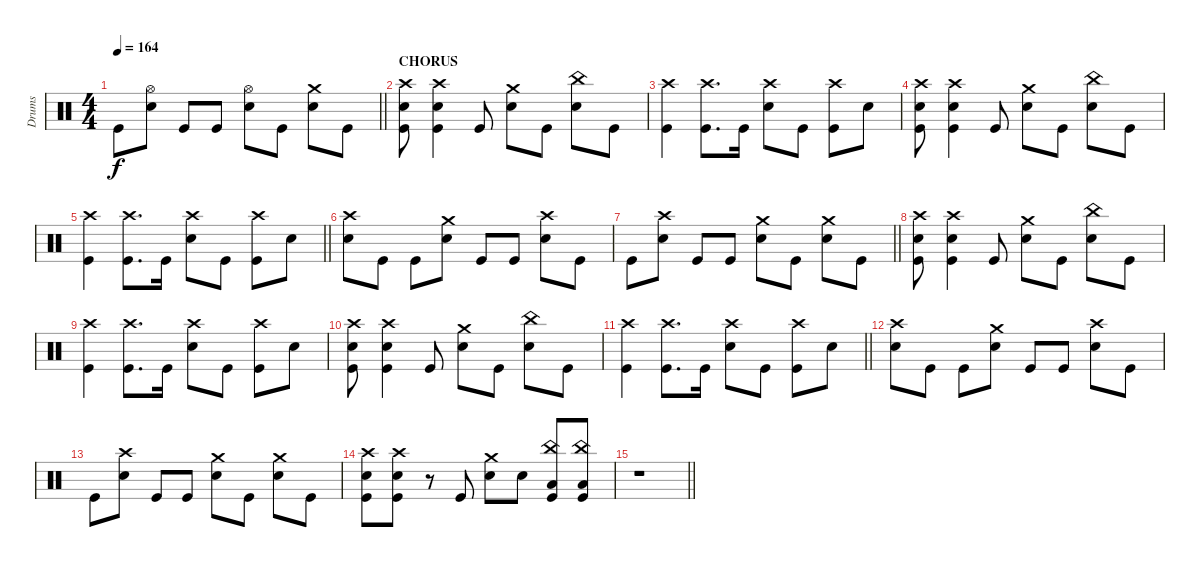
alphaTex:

\track ("Drums" "Drums") {instrument percussion}
\staff
\articulation defaults
\ts (4 4)
\tempo 164
\clef neutral
\barLineRight lightlight
\ks c "Kick (hit)".8{dy f}
("Hi-Hat (open)" "Electric Snare (hit)").8 "Kick (hit)".8 "Kick (hit)".8 ("Hi-Hat (open)" "Electric Snare (hit)").8 "Kick (hit)".8 ("Crash medium (hit)" "Electric Snare (hit)").8 "Kick (hit)".8 |
\section ("" "CHORUS")
("Crash high (hit)" "Electric Snare (hit)" "Kick (hit)").8 ("Crash high (hit)" "Electric Snare (hit)" "Kick (hit)").4 "Kick (hit)".8 ("Crash medium (hit)" "Electric Snare (hit)").8 "Kick (hit)".8 ("China (hit)" "Electric Snare (hit)").8 "Kick (hit)".8 |
("Crash high (hit)" "Kick (hit)").4 ("Crash high (hit)" "Kick (hit)").8{d} "Kick (hit)".16 ("Crash high (hit)" "Electric Snare (hit)").8 "Kick (hit)".8 ("Crash high (hit)" "Kick (hit)").8 "Electric Snare (hit)".8 |
("Crash high (hit)" "Electric Snare (hit)" "Kick (hit)").8 ("Crash high (hit)" "Electric Snare (hit)" "Kick (hit)").4 "Kick (hit)".8 ("Crash medium (hit)" "Electric Snare (hit)").8 "Kick (hit)".8 ("China (hit)" "Electric Snare (hit)").8 "Kick (hit)".8 |
\barLineRight lightlight
("Crash high (hit)" "Kick (hit)").4 ("Crash high (hit)" "Kick (hit)").8{d} "Kick (hit)".16 ("Crash high (hit)" "Electric Snare (hit)").8 "Kick (hit)".8 ("Crash high (hit)" "Kick (hit)").8 "Electric Snare (hit)".8 |
("Crash high (hit)" "Electric Snare (hit)").8 "Kick (hit)".8 "Kick (hit)".8 ("Crash medium (hit)" "Electric Snare (hit)").8 "Kick (hit)".8 "Kick (hit)".8 ("Crash high (hit)" "Electric Snare (hit)").8 "Kick (hit)".8 |
\barLineRight lightlight "Kick (hit)".8
("Crash high (hit)" "Electric Snare (hit)").8 "Kick (hit)".8 "Kick (hit)".8 ("Crash medium (hit)" "Electric Snare (hit)").8 "Kick (hit)".8 ("Crash medium (hit)" "Electric Snare (hit)").8 "Kick (hit)".8 |
("Crash high (hit)" "Electric Snare (hit)" "Kick (hit)").8 ("Crash high (hit)" "Electric Snare (hit)" "Kick (hit)").4 "Kick (hit)".8 ("Crash medium (hit)" "Electric Snare (hit)").8 "Kick (hit)".8 ("China (hit)" "Electric Snare (hit)").8 "Kick (hit)".8 |
("Crash high (hit)" "Kick (hit)").4 ("Crash high (hit)" "Kick (hit)").8{d} "Kick (hit)".16 ("Crash high (hit)" "Electric Snare (hit)").8 "Kick (hit)".8 ("Crash high (hit)" "Kick (hit)").8 "Electric Snare (hit)".8 |
("Crash high (hit)" "Electric Snare (hit)" "Kick (hit)").8 ("Crash high (hit)" "Electric Snare (hit)" "Kick (hit)").4 "Kick (hit)".8 ("Crash medium (hit)" "Electric Snare (hit)").8 "Kick (hit)".8 ("China (hit)" "Electric Snare (hit)").8 "Kick (hit)".8 |
\barLineRight lightlight
("Crash high (hit)" "Kick (hit)").4 ("Crash high (hit)" "Kick (hit)").8{d} "Kick (hit)".16 ("Crash high (hit)" "Electric Snare (hit)").8 "Kick (hit)".8 ("Crash high (hit)" "Kick (hit)").8 "Electric Snare (hit)".8 |
("Crash high (hit)" "Electric Snare (hit)").8 "Kick (hit)".8 "Kick (hit)".8 ("Crash medium (hit)" "Electric Snare (hit)").8 "Kick (hit)".8 "Kick (hit)".8 ("Crash high (hit)" "Electric Snare (hit)").8 "Kick (hit)".8 |
"Kick (hit)".8 ("Crash high (hit)" "Electric Snare (hit)").8 "Kick (hit)".8 "Kick (hit)".8 ("Crash medium (hit)" "Electric Snare (hit)").8 "Kick (hit)".8 ("Crash medium (hit)" "Electric Snare (hit)").8 "Kick (hit)".8 |
("Crash high (hit)" "Electric Snare (hit)" "Kick (hit)").8 ("Crash high (hit)" "Electric Snare (hit)" "Kick (hit)").8 r.8 "Kick (hit)".8 ("Crash medium (hit)" "Electric Snare (hit)").8 "Electric Snare (hit)".8 ("China (hit)" "Low Floor Tom (hit)" "Kick (hit)").8 ("China (hit)" "Low Floor Tom (hit)" "Kick (hit)").8 |
\barLineRight lightlight
r.1
